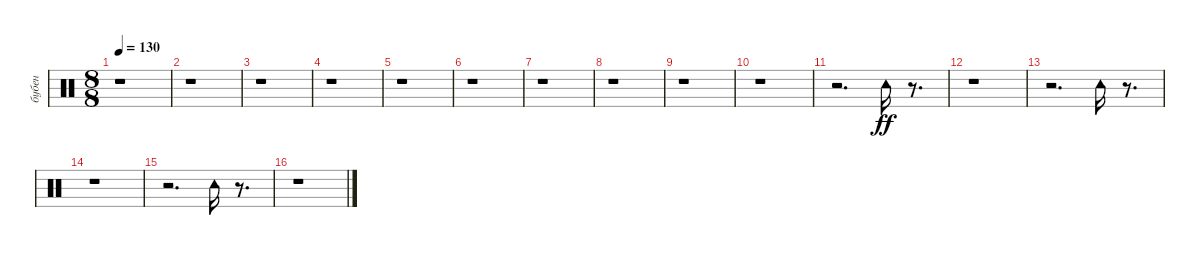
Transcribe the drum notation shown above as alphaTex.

\track ("бубен" "бубен") {instrument percussion}
\staff {score}
\articulation defaults
\ts (8 8)
\tempo 130
\clef neutral
\ks c
r.1{dy ff} |
r.1 |
r.1 |
r.1 |
r.1 |
r.1 |
r.1 |
r.1 |
r.1 |
r.1 |
r.2{d} "Tambourine (hit)".16 r.8{d} |
r.1 |
r.2{d} "Tambourine (hit)".16 r.8{d} |
r.1 |
r.2{d} "Tambourine (hit)".16 r.8{d} |
r.1
